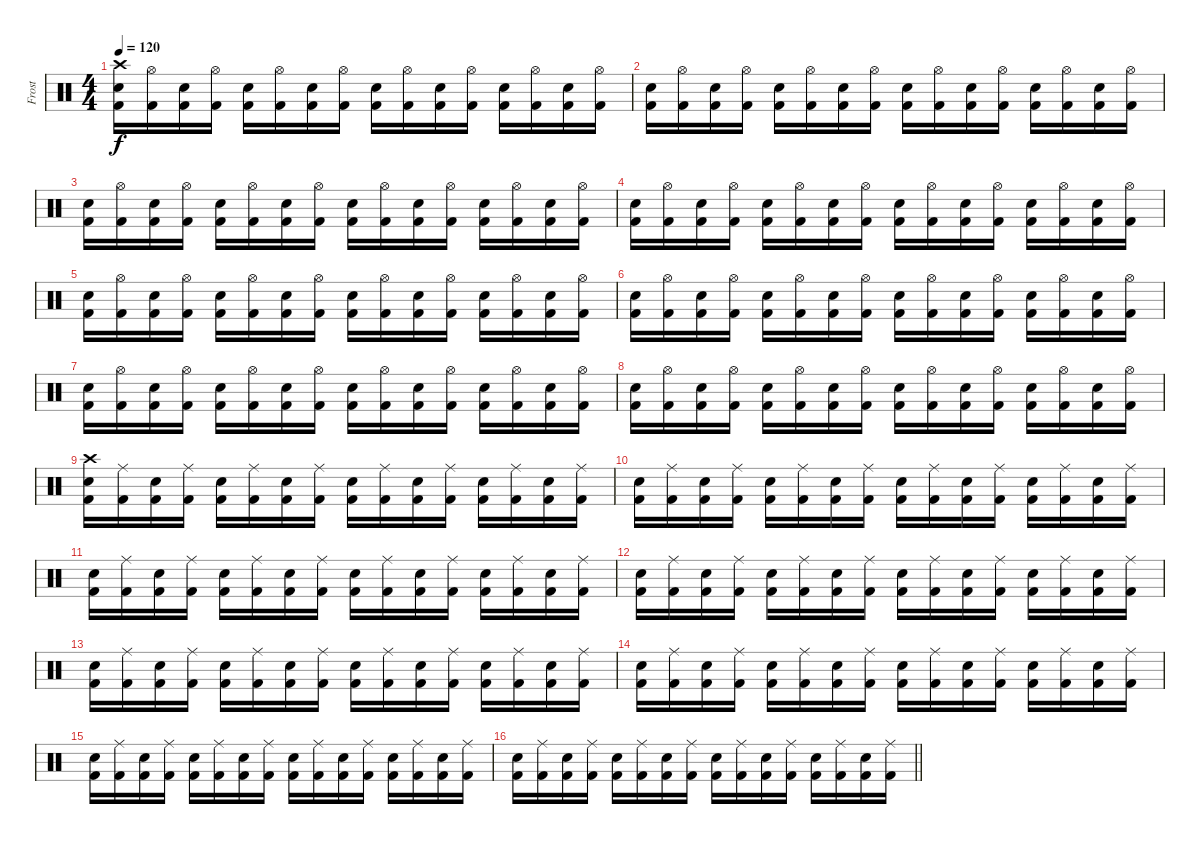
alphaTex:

\track ("Frost" "Frost") {instrument percussion}
\staff {score}
\articulation defaults
\ts (4 4)
\section ("" "")
\tempo 120
\clef neutral
\ks c
("Crash high (hit)" "Electric Snare (hit)" "Kick (hit) 2").16{dy f} ("Hi-Hat (open)" "Kick (hit) 2").16 ("Electric Snare (hit)" "Kick (hit) 2").16 ("Hi-Hat (open)" "Kick (hit) 2").16 ("Electric Snare (hit)" "Kick (hit) 2").16 ("Hi-Hat (open)" "Kick (hit) 2").16 ("Electric Snare (hit)" "Kick (hit) 2").16 ("Hi-Hat (open)" "Kick (hit) 2").16 ("Electric Snare (hit)" "Kick (hit) 2").16 ("Hi-Hat (open)" "Kick (hit) 2").16 ("Electric Snare (hit)" "Kick (hit) 2").16 ("Hi-Hat (open)" "Kick (hit) 2").16 ("Electric Snare (hit)" "Kick (hit) 2").16 ("Hi-Hat (open)" "Kick (hit) 2").16 ("Electric Snare (hit)" "Kick (hit) 2").16 ("Hi-Hat (open)" "Kick (hit) 2").16 |
("Electric Snare (hit)" "Kick (hit) 2").16 ("Hi-Hat (open)" "Kick (hit) 2").16 ("Electric Snare (hit)" "Kick (hit) 2").16 ("Hi-Hat (open)" "Kick (hit) 2").16 ("Electric Snare (hit)" "Kick (hit) 2").16 ("Hi-Hat (open)" "Kick (hit) 2").16 ("Electric Snare (hit)" "Kick (hit) 2").16 ("Hi-Hat (open)" "Kick (hit) 2").16 ("Electric Snare (hit)" "Kick (hit) 2").16 ("Hi-Hat (open)" "Kick (hit) 2").16 ("Electric Snare (hit)" "Kick (hit) 2").16 ("Hi-Hat (open)" "Kick (hit) 2").16 ("Electric Snare (hit)" "Kick (hit) 2").16 ("Hi-Hat (open)" "Kick (hit) 2").16 ("Electric Snare (hit)" "Kick (hit) 2").16 ("Hi-Hat (open)" "Kick (hit) 2").16 |
("Electric Snare (hit)" "Kick (hit) 2").16 ("Hi-Hat (open)" "Kick (hit) 2").16 ("Electric Snare (hit)" "Kick (hit) 2").16 ("Hi-Hat (open)" "Kick (hit) 2").16 ("Electric Snare (hit)" "Kick (hit) 2").16 ("Hi-Hat (open)" "Kick (hit) 2").16 ("Electric Snare (hit)" "Kick (hit) 2").16 ("Hi-Hat (open)" "Kick (hit) 2").16 ("Electric Snare (hit)" "Kick (hit) 2").16 ("Hi-Hat (open)" "Kick (hit) 2").16 ("Electric Snare (hit)" "Kick (hit) 2").16 ("Hi-Hat (open)" "Kick (hit) 2").16 ("Electric Snare (hit)" "Kick (hit) 2").16 ("Hi-Hat (open)" "Kick (hit) 2").16 ("Electric Snare (hit)" "Kick (hit) 2").16 ("Hi-Hat (open)" "Kick (hit) 2").16 |
("Electric Snare (hit)" "Kick (hit) 2").16 ("Hi-Hat (open)" "Kick (hit) 2").16 ("Electric Snare (hit)" "Kick (hit) 2").16 ("Hi-Hat (open)" "Kick (hit) 2").16 ("Electric Snare (hit)" "Kick (hit) 2").16 ("Hi-Hat (open)" "Kick (hit) 2").16 ("Electric Snare (hit)" "Kick (hit) 2").16 ("Hi-Hat (open)" "Kick (hit) 2").16 ("Electric Snare (hit)" "Kick (hit) 2").16 ("Hi-Hat (open)" "Kick (hit) 2").16 ("Electric Snare (hit)" "Kick (hit) 2").16 ("Hi-Hat (open)" "Kick (hit) 2").16 ("Electric Snare (hit)" "Kick (hit) 2").16 ("Hi-Hat (open)" "Kick (hit) 2").16 ("Electric Snare (hit)" "Kick (hit) 2").16 ("Hi-Hat (open)" "Kick (hit) 2").16 |
("Electric Snare (hit)" "Kick (hit) 2").16 ("Hi-Hat (open)" "Kick (hit) 2").16 ("Electric Snare (hit)" "Kick (hit) 2").16 ("Hi-Hat (open)" "Kick (hit) 2").16 ("Electric Snare (hit)" "Kick (hit) 2").16 ("Hi-Hat (open)" "Kick (hit) 2").16 ("Electric Snare (hit)" "Kick (hit) 2").16 ("Hi-Hat (open)" "Kick (hit) 2").16 ("Electric Snare (hit)" "Kick (hit) 2").16 ("Hi-Hat (open)" "Kick (hit) 2").16 ("Electric Snare (hit)" "Kick (hit) 2").16 ("Hi-Hat (open)" "Kick (hit) 2").16 ("Electric Snare (hit)" "Kick (hit) 2").16 ("Hi-Hat (open)" "Kick (hit) 2").16 ("Electric Snare (hit)" "Kick (hit) 2").16 ("Hi-Hat (open)" "Kick (hit) 2").16 |
("Electric Snare (hit)" "Kick (hit) 2").16 ("Hi-Hat (open)" "Kick (hit) 2").16 ("Electric Snare (hit)" "Kick (hit) 2").16 ("Hi-Hat (open)" "Kick (hit) 2").16 ("Electric Snare (hit)" "Kick (hit) 2").16 ("Hi-Hat (open)" "Kick (hit) 2").16 ("Electric Snare (hit)" "Kick (hit) 2").16 ("Hi-Hat (open)" "Kick (hit) 2").16 ("Electric Snare (hit)" "Kick (hit) 2").16 ("Hi-Hat (open)" "Kick (hit) 2").16 ("Electric Snare (hit)" "Kick (hit) 2").16 ("Hi-Hat (open)" "Kick (hit) 2").16 ("Electric Snare (hit)" "Kick (hit) 2").16 ("Hi-Hat (open)" "Kick (hit) 2").16 ("Electric Snare (hit)" "Kick (hit) 2").16 ("Hi-Hat (open)" "Kick (hit) 2").16 |
("Electric Snare (hit)" "Kick (hit) 2").16 ("Hi-Hat (open)" "Kick (hit) 2").16 ("Electric Snare (hit)" "Kick (hit) 2").16 ("Hi-Hat (open)" "Kick (hit) 2").16 ("Electric Snare (hit)" "Kick (hit) 2").16 ("Hi-Hat (open)" "Kick (hit) 2").16 ("Electric Snare (hit)" "Kick (hit) 2").16 ("Hi-Hat (open)" "Kick (hit) 2").16 ("Electric Snare (hit)" "Kick (hit) 2").16 ("Hi-Hat (open)" "Kick (hit) 2").16 ("Electric Snare (hit)" "Kick (hit) 2").16 ("Hi-Hat (open)" "Kick (hit) 2").16 ("Electric Snare (hit)" "Kick (hit) 2").16 ("Hi-Hat (open)" "Kick (hit) 2").16 ("Electric Snare (hit)" "Kick (hit) 2").16 ("Hi-Hat (open)" "Kick (hit) 2").16 |
("Electric Snare (hit)" "Kick (hit) 2").16 ("Hi-Hat (open)" "Kick (hit) 2").16 ("Electric Snare (hit)" "Kick (hit) 2").16 ("Hi-Hat (open)" "Kick (hit) 2").16 ("Electric Snare (hit)" "Kick (hit) 2").16 ("Hi-Hat (open)" "Kick (hit) 2").16 ("Electric Snare (hit)" "Kick (hit) 2").16 ("Hi-Hat (open)" "Kick (hit) 2").16 ("Electric Snare (hit)" "Kick (hit) 2").16 ("Hi-Hat (open)" "Kick (hit) 2").16 ("Electric Snare (hit)" "Kick (hit) 2").16 ("Hi-Hat (open)" "Kick (hit) 2").16 ("Electric Snare (hit)" "Kick (hit) 2").16 ("Hi-Hat (open)" "Kick (hit) 2").16 ("Electric Snare (hit)" "Kick (hit) 2").16 ("Hi-Hat (open)" "Kick (hit) 2").16 |
("Crash high (hit)" "Electric Snare (hit)" "Kick (hit) 2").16 ("Ride (middle)" "Kick (hit) 2").16 ("Electric Snare (hit)" "Kick (hit) 2").16 ("Ride (middle)" "Kick (hit) 2").16 ("Electric Snare (hit)" "Kick (hit) 2").16 ("Ride (middle)" "Kick (hit) 2").16 ("Electric Snare (hit)" "Kick (hit) 2").16 ("Ride (middle)" "Kick (hit) 2").16 ("Electric Snare (hit)" "Kick (hit) 2").16 ("Ride (middle)" "Kick (hit) 2").16 ("Electric Snare (hit)" "Kick (hit) 2").16 ("Ride (middle)" "Kick (hit) 2").16 ("Electric Snare (hit)" "Kick (hit) 2").16 ("Ride (middle)" "Kick (hit) 2").16 ("Electric Snare (hit)" "Kick (hit) 2").16 ("Ride (middle)" "Kick (hit) 2").16 |
("Electric Snare (hit)" "Kick (hit) 2").16 ("Ride (middle)" "Kick (hit) 2").16 ("Electric Snare (hit)" "Kick (hit) 2").16 ("Ride (middle)" "Kick (hit) 2").16 ("Electric Snare (hit)" "Kick (hit) 2").16 ("Ride (middle)" "Kick (hit) 2").16 ("Electric Snare (hit)" "Kick (hit) 2").16 ("Ride (middle)" "Kick (hit) 2").16 ("Electric Snare (hit)" "Kick (hit) 2").16 ("Ride (middle)" "Kick (hit) 2").16 ("Electric Snare (hit)" "Kick (hit) 2").16 ("Ride (middle)" "Kick (hit) 2").16 ("Electric Snare (hit)" "Kick (hit) 2").16 ("Ride (middle)" "Kick (hit) 2").16 ("Electric Snare (hit)" "Kick (hit) 2").16 ("Ride (middle)" "Kick (hit) 2").16 |
("Electric Snare (hit)" "Kick (hit) 2").16 ("Ride (middle)" "Kick (hit) 2").16 ("Electric Snare (hit)" "Kick (hit) 2").16 ("Ride (middle)" "Kick (hit) 2").16 ("Electric Snare (hit)" "Kick (hit) 2").16 ("Ride (middle)" "Kick (hit) 2").16 ("Electric Snare (hit)" "Kick (hit) 2").16 ("Ride (middle)" "Kick (hit) 2").16 ("Electric Snare (hit)" "Kick (hit) 2").16 ("Ride (middle)" "Kick (hit) 2").16 ("Electric Snare (hit)" "Kick (hit) 2").16 ("Ride (middle)" "Kick (hit) 2").16 ("Electric Snare (hit)" "Kick (hit) 2").16 ("Ride (middle)" "Kick (hit) 2").16 ("Electric Snare (hit)" "Kick (hit) 2").16 ("Ride (middle)" "Kick (hit) 2").16 |
("Electric Snare (hit)" "Kick (hit) 2").16 ("Ride (middle)" "Kick (hit) 2").16 ("Electric Snare (hit)" "Kick (hit) 2").16 ("Ride (middle)" "Kick (hit) 2").16 ("Electric Snare (hit)" "Kick (hit) 2").16 ("Ride (middle)" "Kick (hit) 2").16 ("Electric Snare (hit)" "Kick (hit) 2").16 ("Ride (middle)" "Kick (hit) 2").16 ("Electric Snare (hit)" "Kick (hit) 2").16 ("Ride (middle)" "Kick (hit) 2").16 ("Electric Snare (hit)" "Kick (hit) 2").16 ("Ride (middle)" "Kick (hit) 2").16 ("Electric Snare (hit)" "Kick (hit) 2").16 ("Ride (middle)" "Kick (hit) 2").16 ("Electric Snare (hit)" "Kick (hit) 2").16 ("Ride (middle)" "Kick (hit) 2").16 |
("Electric Snare (hit)" "Kick (hit) 2").16 ("Ride (middle)" "Kick (hit) 2").16 ("Electric Snare (hit)" "Kick (hit) 2").16 ("Ride (middle)" "Kick (hit) 2").16 ("Electric Snare (hit)" "Kick (hit) 2").16 ("Ride (middle)" "Kick (hit) 2").16 ("Electric Snare (hit)" "Kick (hit) 2").16 ("Ride (middle)" "Kick (hit) 2").16 ("Electric Snare (hit)" "Kick (hit) 2").16 ("Ride (middle)" "Kick (hit) 2").16 ("Electric Snare (hit)" "Kick (hit) 2").16 ("Ride (middle)" "Kick (hit) 2").16 ("Electric Snare (hit)" "Kick (hit) 2").16 ("Ride (middle)" "Kick (hit) 2").16 ("Electric Snare (hit)" "Kick (hit) 2").16 ("Ride (middle)" "Kick (hit) 2").16 |
("Electric Snare (hit)" "Kick (hit) 2").16 ("Ride (middle)" "Kick (hit) 2").16 ("Electric Snare (hit)" "Kick (hit) 2").16 ("Ride (middle)" "Kick (hit) 2").16 ("Electric Snare (hit)" "Kick (hit) 2").16 ("Ride (middle)" "Kick (hit) 2").16 ("Electric Snare (hit)" "Kick (hit) 2").16 ("Ride (middle)" "Kick (hit) 2").16 ("Electric Snare (hit)" "Kick (hit) 2").16 ("Ride (middle)" "Kick (hit) 2").16 ("Electric Snare (hit)" "Kick (hit) 2").16 ("Ride (middle)" "Kick (hit) 2").16 ("Electric Snare (hit)" "Kick (hit) 2").16 ("Ride (middle)" "Kick (hit) 2").16 ("Electric Snare (hit)" "Kick (hit) 2").16 ("Ride (middle)" "Kick (hit) 2").16 |
("Electric Snare (hit)" "Kick (hit) 2").16 ("Ride (middle)" "Kick (hit) 2").16 ("Electric Snare (hit)" "Kick (hit) 2").16 ("Ride (middle)" "Kick (hit) 2").16 ("Electric Snare (hit)" "Kick (hit) 2").16 ("Ride (middle)" "Kick (hit) 2").16 ("Electric Snare (hit)" "Kick (hit) 2").16 ("Ride (middle)" "Kick (hit) 2").16 ("Electric Snare (hit)" "Kick (hit) 2").16 ("Ride (middle)" "Kick (hit) 2").16 ("Electric Snare (hit)" "Kick (hit) 2").16 ("Ride (middle)" "Kick (hit) 2").16 ("Electric Snare (hit)" "Kick (hit) 2").16 ("Ride (middle)" "Kick (hit) 2").16 ("Electric Snare (hit)" "Kick (hit) 2").16 ("Ride (middle)" "Kick (hit) 2").16 |
\barLineRight lightlight
("Electric Snare (hit)" "Kick (hit) 2").16 ("Ride (middle)" "Kick (hit) 2").16 ("Electric Snare (hit)" "Kick (hit) 2").16 ("Ride (middle)" "Kick (hit) 2").16 ("Electric Snare (hit)" "Kick (hit) 2").16 ("Ride (middle)" "Kick (hit) 2").16 ("Electric Snare (hit)" "Kick (hit) 2").16 ("Ride (middle)" "Kick (hit) 2").16 ("Electric Snare (hit)" "Kick (hit) 2").16 ("Ride (middle)" "Kick (hit) 2").16 ("Electric Snare (hit)" "Kick (hit) 2").16 ("Ride (middle)" "Kick (hit) 2").16 ("Electric Snare (hit)" "Kick (hit) 2").16 ("Ride (middle)" "Kick (hit) 2").16 ("Electric Snare (hit)" "Kick (hit) 2").16 ("Ride (middle)" "Kick (hit) 2").16
